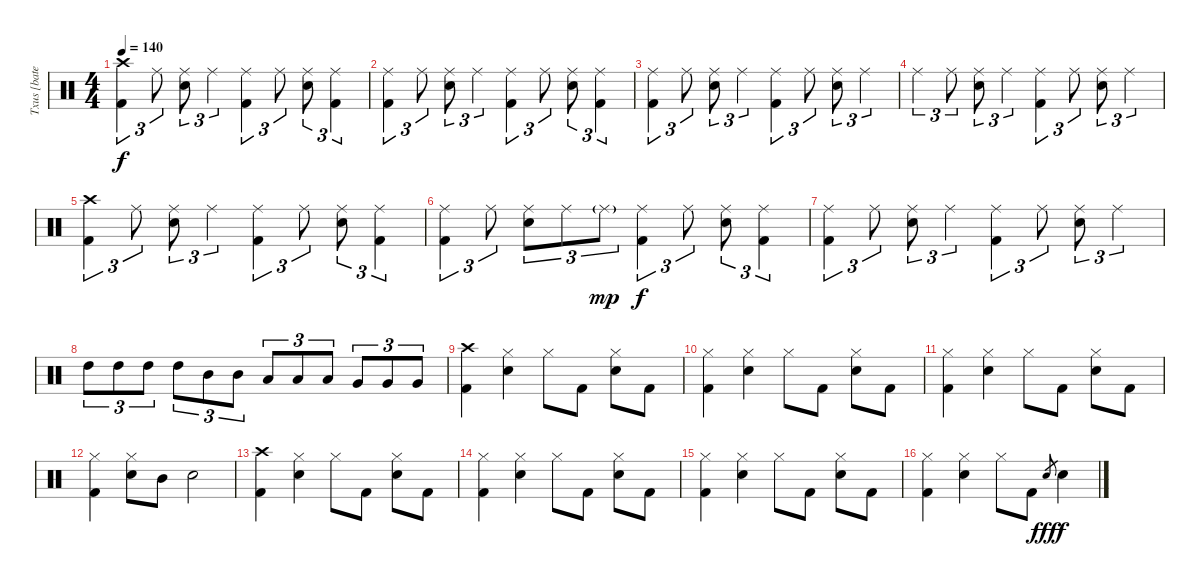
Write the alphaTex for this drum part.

\track ("Txus [bateria]" "Txus [bate") {instrument percussion}
\staff {score}
\articulation defaults
\ts (4 4)
\tempo 140
\clef neutral
\ks c
("Crash high (hit)" "Kick (hit) 2").4{tu (3 2) dy f} "Ride (middle)".8{tu (3 2)} ("Ride (middle)" "Snare (hit) 2").8{tu (3 2)} "Ride (middle)".4{tu (3 2)} ("Ride (middle)" "Kick (hit) 2").4{tu (3 2)} "Ride (middle)".8{tu (3 2)} ("Ride (middle)" "Snare (hit) 2").8{tu (3 2)} ("Ride (middle)" "Kick (hit) 2").4{tu (3 2)} |
("Ride (middle)" "Kick (hit) 2").4{tu (3 2)} "Ride (middle)".8{tu (3 2)} ("Ride (middle)" "Snare (hit) 2").8{tu (3 2)} "Ride (middle)".4{tu (3 2)} ("Ride (middle)" "Kick (hit) 2").4{tu (3 2)} "Ride (middle)".8{tu (3 2)} ("Ride (middle)" "Snare (hit) 2").8{tu (3 2)} ("Ride (middle)" "Kick (hit) 2").4{tu (3 2)} |
("Ride (middle)" "Kick (hit) 2").4{tu (3 2)} "Ride (middle)".8{tu (3 2)} ("Ride (middle)" "Snare (hit) 2").8{tu (3 2)} "Ride (middle)".4{tu (3 2)} ("Ride (middle)" "Kick (hit) 2").4{tu (3 2)} "Ride (middle)".8{tu (3 2)} ("Ride (middle)" "Snare (hit) 2").8{tu (3 2)} "Ride (middle)".4{tu (3 2)} |
"Ride (middle)".4{tu (3 2)} "Ride (middle)".8{tu (3 2)} ("Ride (middle)" "Snare (hit) 2").8{tu (3 2)} "Ride (middle)".4{tu (3 2)} ("Ride (middle)" "Kick (hit) 2").4{tu (3 2)} "Ride (middle)".8{tu (3 2)} ("Ride (middle)" "Snare (hit) 2").8{tu (3 2)} "Ride (middle)".4{tu (3 2)} |
("Crash high (hit)" "Kick (hit) 2").4{tu (3 2)} "Ride (middle)".8{tu (3 2)} ("Ride (middle)" "Snare (hit) 2").8{tu (3 2)} "Ride (middle)".4{tu (3 2)} ("Ride (middle)" "Kick (hit) 2").4{tu (3 2)} "Ride (middle)".8{tu (3 2)} ("Ride (middle)" "Snare (hit) 2").8{tu (3 2)} ("Ride (middle)" "Kick (hit) 2").4{tu (3 2)} |
("Ride (middle)" "Kick (hit) 2").4{tu (3 2)} "Ride (middle)".8{tu (3 2)} ("Ride (middle)" "Snare (hit) 2").8{tu (3 2)} "Ride (middle)".8{tu (3 2)} "Ride (middle)"{g}.8{tu (3 2) dy mp} ("Ride (middle)" "Kick (hit) 2").4{tu (3 2) dy f} "Ride (middle)".8{tu (3 2)} ("Ride (middle)" "Snare (hit) 2").8{tu (3 2)} ("Ride (middle)" "Kick (hit) 2").4{tu (3 2)} |
("Ride (middle)" "Kick (hit) 2").4{tu (3 2)} "Ride (middle)".8{tu (3 2)} ("Ride (middle)" "Snare (hit) 2").8{tu (3 2)} "Ride (middle)".4{tu (3 2)} ("Ride (middle)" "Kick (hit) 2").4{tu (3 2)} "Ride (middle)".8{tu (3 2)} ("Ride (middle)" "Snare (hit) 2").8{tu (3 2)} "Ride (middle)".4{tu (3 2)} |
"High Tom (hit)".8{tu (3 2)} "High Tom (hit)".8{tu (3 2)} "High Tom (hit)".8{tu (3 2)} "High Tom (hit)".8{tu (3 2)} "Mid Tom (hit)".8{tu (3 2)} "Mid Tom (hit)".8{tu (3 2)} "Low Tom (hit)".8{tu (3 2)} "Low Tom (hit)".8{tu (3 2)} "Low Tom (hit)".8{tu (3 2)} "Very Low Tom (hit)".8{tu (3 2)} "Very Low Tom (hit)".8{tu (3 2)} "Very Low Tom (hit)".8{tu (3 2)} |
("Crash high (hit)" "Kick (hit) 2").4 ("Hi-Hat (closed)" "Snare (hit) 2").4 "Hi-Hat (closed)".8 "Kick (hit) 2".8 ("Hi-Hat (closed)" "Snare (hit) 2").8 "Kick (hit) 2".8 |
("Hi-Hat (closed)" "Kick (hit) 2").4 ("Hi-Hat (closed)" "Snare (hit) 2").4 "Hi-Hat (closed)".8 "Kick (hit) 2".8 ("Hi-Hat (closed)" "Snare (hit) 2").8 "Kick (hit) 2".8 |
("Hi-Hat (closed)" "Kick (hit) 2").4 ("Hi-Hat (closed)" "Snare (hit) 2").4 "Hi-Hat (closed)".8 "Kick (hit) 2".8 ("Hi-Hat (closed)" "Snare (hit) 2").8 "Kick (hit) 2".8 |
("Hi-Hat (closed)" "Kick (hit) 2").4 ("Hi-Hat (closed)" "Snare (hit) 2").8 "Mid Tom (hit)".8 "Snare (hit) 2".2 |
("Crash high (hit)" "Kick (hit) 2").4 ("Hi-Hat (closed)" "Snare (hit) 2").4 "Hi-Hat (closed)".8 "Kick (hit) 2".8 ("Hi-Hat (closed)" "Snare (hit) 2").8 "Kick (hit) 2".8 |
("Hi-Hat (closed)" "Kick (hit) 2").4 ("Hi-Hat (closed)" "Snare (hit) 2").4 "Hi-Hat (closed)".8 "Kick (hit) 2".8 ("Hi-Hat (closed)" "Snare (hit) 2").8 "Kick (hit) 2".8 |
("Hi-Hat (closed)" "Kick (hit) 2").4 ("Hi-Hat (closed)" "Snare (hit) 2").4 "Hi-Hat (closed)".8 "Kick (hit) 2".8 ("Hi-Hat (closed)" "Snare (hit) 2").8 "Kick (hit) 2".8 |
("Hi-Hat (closed)" "Kick (hit) 2").4 ("Hi-Hat (closed)" "Snare (hit) 2").4 "Hi-Hat (closed)".8 "Kick (hit) 2".8 "Snare (hit) 2".8{gr dy fff} "Snare (hit) 2".4{dy f}
